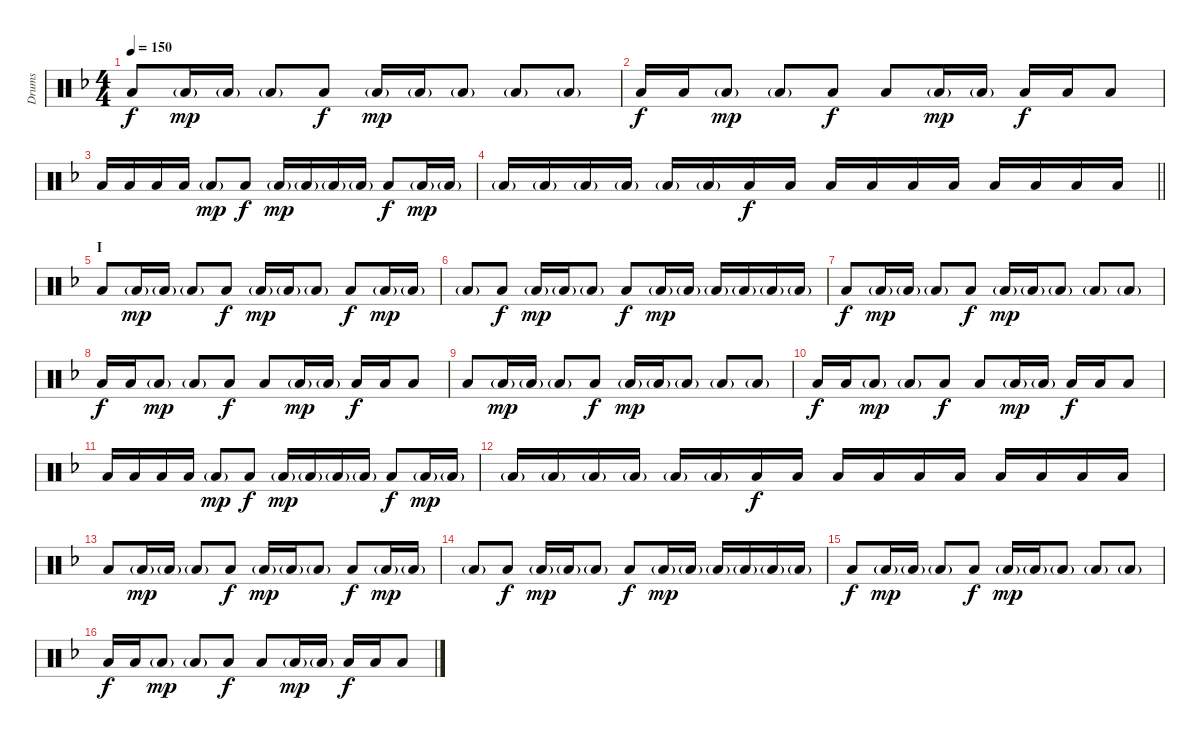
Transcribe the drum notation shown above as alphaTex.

\track ("Drums" "Drums") {instrument percussion}
\staff {score}
\articulation defaults
\ts (4 4)
\tempo 150
\clef neutral
\ks f "Low Tom (hit)".8{dy f} "Low Tom (hit)"{g}.16{dy mp} "Low Tom (hit)"{g}.16 "Low Tom (hit)"{g}.8 "Low Tom (hit)".8{dy f} "Low Tom (hit)"{g}.16{dy mp} "Low Tom (hit)"{g}.16 "Low Tom (hit)"{g}.8 "Low Tom (hit)"{g}.8 "Low Tom (hit)"{g}.8
|
"Low Tom (hit)".16{dy f} "Low Tom (hit)".16 "Low Tom (hit)"{g}.8{dy mp} "Low Tom (hit)"{g}.8 "Low Tom (hit)".8{dy f} "Low Tom (hit)".8 "Low Tom (hit)"{g}.16{dy mp} "Low Tom (hit)"{g}.16 "Low Tom (hit)".16{dy f} "Low Tom (hit)".16 "Low Tom (hit)".8 |
"Low Tom (hit)".16 "Low Tom (hit)".16 "Low Tom (hit)".16 "Low Tom (hit)".16 "Low Tom (hit)"{g}.8{dy mp} "Low Tom (hit)".8{dy f} "Low Tom (hit)"{g}.16{dy mp} "Low Tom (hit)"{g}.16 "Low Tom (hit)"{g}.16 "Low Tom (hit)"{g}.16 "Low Tom (hit)".8{dy f} "Low Tom (hit)"{g}.16{dy mp} "Low Tom (hit)"{g}.16 |
\barLineRight lightlight "Low Tom (hit)"{g}.16 "Low Tom (hit)"{g}.16 "Low Tom (hit)"{g}.16 "Low Tom (hit)"{g}.16 "Low Tom (hit)"{g}.16 "Low Tom (hit)"{g}.16 "Low Tom (hit)".16{dy f} "Low Tom (hit)".16 "Low Tom (hit)".16 "Low Tom (hit)".16 "Low Tom (hit)".16 "Low Tom (hit)".16 "Low Tom (hit)".16 "Low Tom (hit)".16 "Low Tom (hit)".16 "Low Tom (hit)".16
|
\section ("" "I")
"Low Tom (hit)".8 "Low Tom (hit)"{g}.16{dy mp} "Low Tom (hit)"{g}.16 "Low Tom (hit)"{g}.8 "Low Tom (hit)".8{dy f} "Low Tom (hit)"{g}.16{dy mp} "Low Tom (hit)"{g}.16 "Low Tom (hit)"{g}.8 "Low Tom (hit)".8{dy f} "Low Tom (hit)"{g}.16{dy mp} "Low Tom (hit)"{g}.16 |
"Low Tom (hit)"{g}.8 "Low Tom (hit)".8{dy f} "Low Tom (hit)"{g}.16{dy mp} "Low Tom (hit)"{g}.16 "Low Tom (hit)"{g}.8 "Low Tom (hit)".8{dy f} "Low Tom (hit)"{g}.16{dy mp} "Low Tom (hit)"{g}.16 "Low Tom (hit)"{g}.16 "Low Tom (hit)"{g}.16 "Low Tom (hit)"{g}.16 "Low Tom (hit)"{g}.16 |
"Low Tom (hit)".8{dy f} "Low Tom (hit)"{g}.16{dy mp} "Low Tom (hit)"{g}.16 "Low Tom (hit)"{g}.8 "Low Tom (hit)".8{dy f} "Low Tom (hit)"{g}.16{dy mp} "Low Tom (hit)"{g}.16 "Low Tom (hit)"{g}.8 "Low Tom (hit)"{g}.8 "Low Tom (hit)"{g}.8 |
"Low Tom (hit)".16{dy f} "Low Tom (hit)".16 "Low Tom (hit)"{g}.8{dy mp} "Low Tom (hit)"{g}.8 "Low Tom (hit)".8{dy f} "Low Tom (hit)".8 "Low Tom (hit)"{g}.16{dy mp} "Low Tom (hit)"{g}.16 "Low Tom (hit)".16{dy f} "Low Tom (hit)".16 "Low Tom (hit)".8 |
"Low Tom (hit)".8 "Low Tom (hit)"{g}.16{dy mp} "Low Tom (hit)"{g}.16 "Low Tom (hit)"{g}.8 "Low Tom (hit)".8{dy f} "Low Tom (hit)"{g}.16{dy mp} "Low Tom (hit)"{g}.16 "Low Tom (hit)"{g}.8 "Low Tom (hit)"{g}.8 "Low Tom (hit)"{g}.8 |
"Low Tom (hit)".16{dy f} "Low Tom (hit)".16 "Low Tom (hit)"{g}.8{dy mp} "Low Tom (hit)"{g}.8 "Low Tom (hit)".8{dy f} "Low Tom (hit)".8 "Low Tom (hit)"{g}.16{dy mp} "Low Tom (hit)"{g}.16 "Low Tom (hit)".16{dy f} "Low Tom (hit)".16 "Low Tom (hit)".8 |
"Low Tom (hit)".16 "Low Tom (hit)".16 "Low Tom (hit)".16 "Low Tom (hit)".16 "Low Tom (hit)"{g}.8{dy mp} "Low Tom (hit)".8{dy f} "Low Tom (hit)"{g}.16{dy mp} "Low Tom (hit)"{g}.16 "Low Tom (hit)"{g}.16 "Low Tom (hit)"{g}.16 "Low Tom (hit)".8{dy f} "Low Tom (hit)"{g}.16{dy mp} "Low Tom (hit)"{g}.16 |
"Low Tom (hit)"{g}.16 "Low Tom (hit)"{g}.16 "Low Tom (hit)"{g}.16 "Low Tom (hit)"{g}.16 "Low Tom (hit)"{g}.16 "Low Tom (hit)"{g}.16 "Low Tom (hit)".16{dy f} "Low Tom (hit)".16 "Low Tom (hit)".16 "Low Tom (hit)".16 "Low Tom (hit)".16 "Low Tom (hit)".16 "Low Tom (hit)".16 "Low Tom (hit)".16 "Low Tom (hit)".16 "Low Tom (hit)".16 |
"Low Tom (hit)".8 "Low Tom (hit)"{g}.16{dy mp} "Low Tom (hit)"{g}.16 "Low Tom (hit)"{g}.8 "Low Tom (hit)".8{dy f} "Low Tom (hit)"{g}.16{dy mp} "Low Tom (hit)"{g}.16 "Low Tom (hit)"{g}.8 "Low Tom (hit)".8{dy f} "Low Tom (hit)"{g}.16{dy mp} "Low Tom (hit)"{g}.16 |
"Low Tom (hit)"{g}.8 "Low Tom (hit)".8{dy f} "Low Tom (hit)"{g}.16{dy mp} "Low Tom (hit)"{g}.16 "Low Tom (hit)"{g}.8 "Low Tom (hit)".8{dy f} "Low Tom (hit)"{g}.16{dy mp} "Low Tom (hit)"{g}.16 "Low Tom (hit)"{g}.16 "Low Tom (hit)"{g}.16 "Low Tom (hit)"{g}.16 "Low Tom (hit)"{g}.16 |
"Low Tom (hit)".8{dy f} "Low Tom (hit)"{g}.16{dy mp} "Low Tom (hit)"{g}.16 "Low Tom (hit)"{g}.8 "Low Tom (hit)".8{dy f} "Low Tom (hit)"{g}.16{dy mp} "Low Tom (hit)"{g}.16 "Low Tom (hit)"{g}.8 "Low Tom (hit)"{g}.8 "Low Tom (hit)"{g}.8 |
"Low Tom (hit)".16{dy f} "Low Tom (hit)".16 "Low Tom (hit)"{g}.8{dy mp} "Low Tom (hit)"{g}.8 "Low Tom (hit)".8{dy f} "Low Tom (hit)".8 "Low Tom (hit)"{g}.16{dy mp} "Low Tom (hit)"{g}.16 "Low Tom (hit)".16{dy f} "Low Tom (hit)".16 "Low Tom (hit)".8
